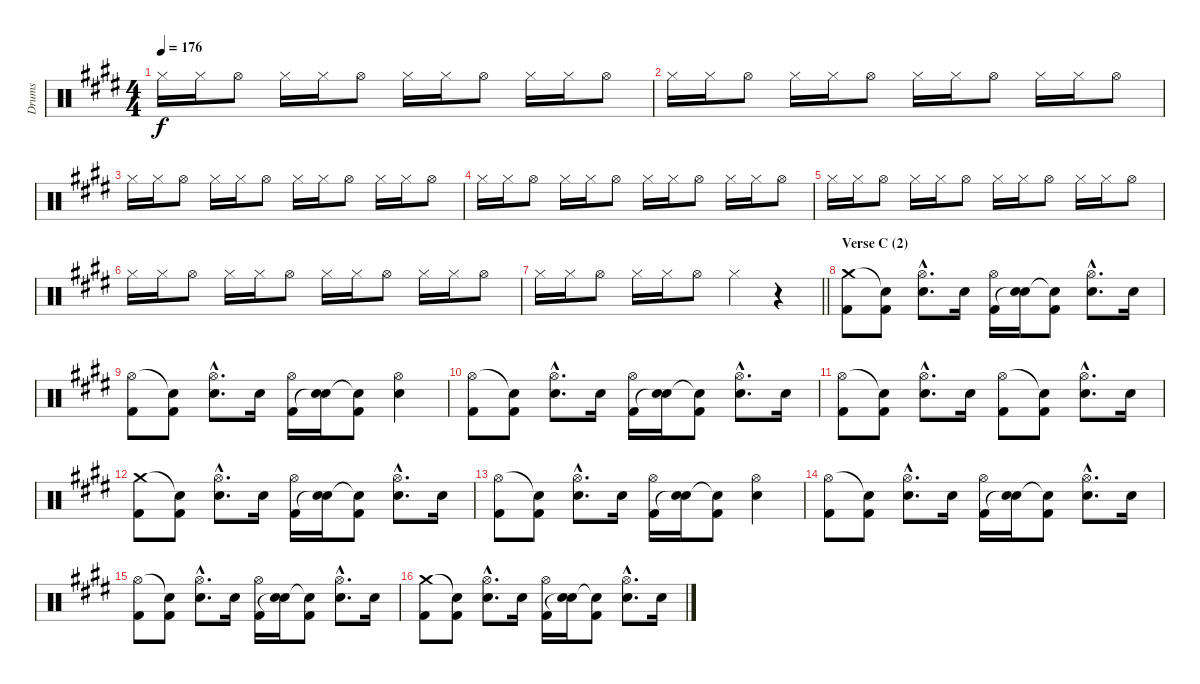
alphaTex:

\track ("Drums" "Drums") {instrument percussion}
\staff {score}
\articulation defaults
\ts (4 4)
\tempo 176
\clef neutral
\ks c#minor "Hi-Hat (closed)".16{dy f} "Hi-Hat (closed)".16 "Hi-Hat (open)".8 "Hi-Hat (closed)".16 "Hi-Hat (closed)".16 "Hi-Hat (open)".8 "Hi-Hat (closed)".16 "Hi-Hat (closed)".16 "Hi-Hat (open)".8 "Hi-Hat (closed)".16 "Hi-Hat (closed)".16 "Hi-Hat (open)".8
|
"Hi-Hat (closed)".16 "Hi-Hat (closed)".16 "Hi-Hat (open)".8 "Hi-Hat (closed)".16 "Hi-Hat (closed)".16 "Hi-Hat (open)".8 "Hi-Hat (closed)".16 "Hi-Hat (closed)".16 "Hi-Hat (open)".8 "Hi-Hat (closed)".16 "Hi-Hat (closed)".16 "Hi-Hat (open)".8 |
"Hi-Hat (closed)".16 "Hi-Hat (closed)".16 "Hi-Hat (open)".8 "Hi-Hat (closed)".16 "Hi-Hat (closed)".16 "Hi-Hat (open)".8 "Hi-Hat (closed)".16 "Hi-Hat (closed)".16 "Hi-Hat (open)".8 "Hi-Hat (closed)".16 "Hi-Hat (closed)".16 "Hi-Hat (open)".8 |
"Hi-Hat (closed)".16 "Hi-Hat (closed)".16 "Hi-Hat (open)".8 "Hi-Hat (closed)".16 "Hi-Hat (closed)".16 "Hi-Hat (open)".8 "Hi-Hat (closed)".16 "Hi-Hat (closed)".16 "Hi-Hat (open)".8 "Hi-Hat (closed)".16 "Hi-Hat (closed)".16 "Hi-Hat (open)".8 |
"Hi-Hat (closed)".16 "Hi-Hat (closed)".16 "Hi-Hat (open)".8 "Hi-Hat (closed)".16 "Hi-Hat (closed)".16 "Hi-Hat (open)".8 "Hi-Hat (closed)".16 "Hi-Hat (closed)".16 "Hi-Hat (open)".8 "Hi-Hat (closed)".16 "Hi-Hat (closed)".16 "Hi-Hat (open)".8 |
"Hi-Hat (closed)".16 "Hi-Hat (closed)".16 "Hi-Hat (open)".8 "Hi-Hat (closed)".16 "Hi-Hat (closed)".16 "Hi-Hat (open)".8 "Hi-Hat (closed)".16 "Hi-Hat (closed)".16 "Hi-Hat (open)".8 "Hi-Hat (closed)".16 "Hi-Hat (closed)".16 "Hi-Hat (open)".8 |
\barLineRight lightlight "Hi-Hat (closed)".16 "Hi-Hat (closed)".16 "Hi-Hat (open)".8 "Hi-Hat (closed)".16 "Hi-Hat (closed)".16 "Hi-Hat (open)".8 "Hi-Hat (closed)".4
r.4 |
\section ("" "Verse C (2)")
("Crash medium (hit)" "Kick (hit) 2").8 ("Snare (hit)"{t} "Kick (hit) 2").8 ("Hi-Hat (open)"{hac} "Electric Snare (hit)"{hac}).8{d} "Electric Snare (hit)".16 ("Hi-Hat (open)" "Kick (hit) 2").16 ("Electric Snare (hit)" "Snare (hit)"{t}).16 ("Snare (hit)"{t} "Kick (hit) 2").8 ("Hi-Hat (open)"{hac} "Electric Snare (hit)"{hac}).8{d} "Electric Snare (hit)".16 |
("Hi-Hat (open)" "Kick (hit) 2").8 ("Snare (hit)"{t} "Kick (hit) 2").8 ("Hi-Hat (open)"{hac} "Electric Snare (hit)"{hac}).8{d} "Electric Snare (hit)".16 ("Hi-Hat (open)" "Kick (hit) 2").16 ("Electric Snare (hit)" "Snare (hit)"{t}).16 ("Snare (hit)"{t} "Kick (hit) 2").8 ("Hi-Hat (open)" "Electric Snare (hit)").4 |
("Hi-Hat (open)" "Kick (hit) 2").8 ("Snare (hit)"{t} "Kick (hit) 2").8 ("Hi-Hat (open)"{hac} "Electric Snare (hit)"{hac}).8{d} "Electric Snare (hit)".16 ("Hi-Hat (open)" "Kick (hit) 2").16 ("Electric Snare (hit)" "Snare (hit)"{t}).16 ("Snare (hit)"{t} "Kick (hit) 2").8 ("Hi-Hat (open)"{hac} "Electric Snare (hit)"{hac}).8{d} "Electric Snare (hit)".16 |
("Hi-Hat (open)" "Kick (hit) 2").8 ("Snare (hit)"{t} "Kick (hit) 2").8 ("Hi-Hat (open)"{hac} "Electric Snare (hit)"{hac}).8{d} "Electric Snare (hit)".16 ("Hi-Hat (open)" "Kick (hit) 2").8 ("Snare (hit)"{t} "Kick (hit) 2").8 ("Hi-Hat (open)"{hac} "Electric Snare (hit)"{hac}).8{d} "Electric Snare (hit)".16 |
("Crash medium (hit)" "Kick (hit) 2").8 ("Snare (hit)"{t} "Kick (hit) 2").8 ("Hi-Hat (open)"{hac} "Electric Snare (hit)"{hac}).8{d} "Electric Snare (hit)".16 ("Hi-Hat (open)" "Kick (hit) 2").16 ("Electric Snare (hit)" "Snare (hit)"{t}).16 ("Snare (hit)"{t} "Kick (hit) 2").8 ("Hi-Hat (open)"{hac} "Electric Snare (hit)"{hac}).8{d} "Electric Snare (hit)".16 |
("Hi-Hat (open)" "Kick (hit) 2").8 ("Snare (hit)"{t} "Kick (hit) 2").8 ("Hi-Hat (open)"{hac} "Electric Snare (hit)"{hac}).8{d} "Electric Snare (hit)".16 ("Hi-Hat (open)" "Kick (hit) 2").16 ("Electric Snare (hit)" "Snare (hit)"{t}).16 ("Snare (hit)"{t} "Kick (hit) 2").8 ("Hi-Hat (open)" "Electric Snare (hit)").4 |
("Hi-Hat (open)" "Kick (hit) 2").8 ("Snare (hit)"{t} "Kick (hit) 2").8 ("Hi-Hat (open)"{hac} "Electric Snare (hit)"{hac}).8{d} "Electric Snare (hit)".16 ("Hi-Hat (open)" "Kick (hit) 2").16 ("Electric Snare (hit)" "Snare (hit)"{t}).16 ("Snare (hit)"{t} "Kick (hit) 2").8 ("Hi-Hat (open)"{hac} "Electric Snare (hit)"{hac}).8{d} "Electric Snare (hit)".16 |
("Hi-Hat (open)" "Kick (hit) 2").8 ("Snare (hit)"{t} "Kick (hit) 2").8 ("Hi-Hat (open)"{hac} "Electric Snare (hit)"{hac}).8{d} "Electric Snare (hit)".16 ("Hi-Hat (open)" "Kick (hit) 2").16 ("Electric Snare (hit)" "Snare (hit)"{t}).16 ("Snare (hit)"{t} "Kick (hit) 2").8 ("Hi-Hat (open)"{hac} "Electric Snare (hit)"{hac}).8{d} "Electric Snare (hit)".16 |
("Crash medium (hit)" "Kick (hit) 2").8 ("Snare (hit)"{t} "Kick (hit) 2").8 ("Hi-Hat (open)"{hac} "Electric Snare (hit)"{hac}).8{d} "Electric Snare (hit)".16 ("Hi-Hat (open)" "Kick (hit) 2").16 ("Electric Snare (hit)" "Snare (hit)"{t}).16 ("Snare (hit)"{t} "Kick (hit) 2").8 ("Hi-Hat (open)"{hac} "Electric Snare (hit)"{hac}).8{d} "Electric Snare (hit)".16
